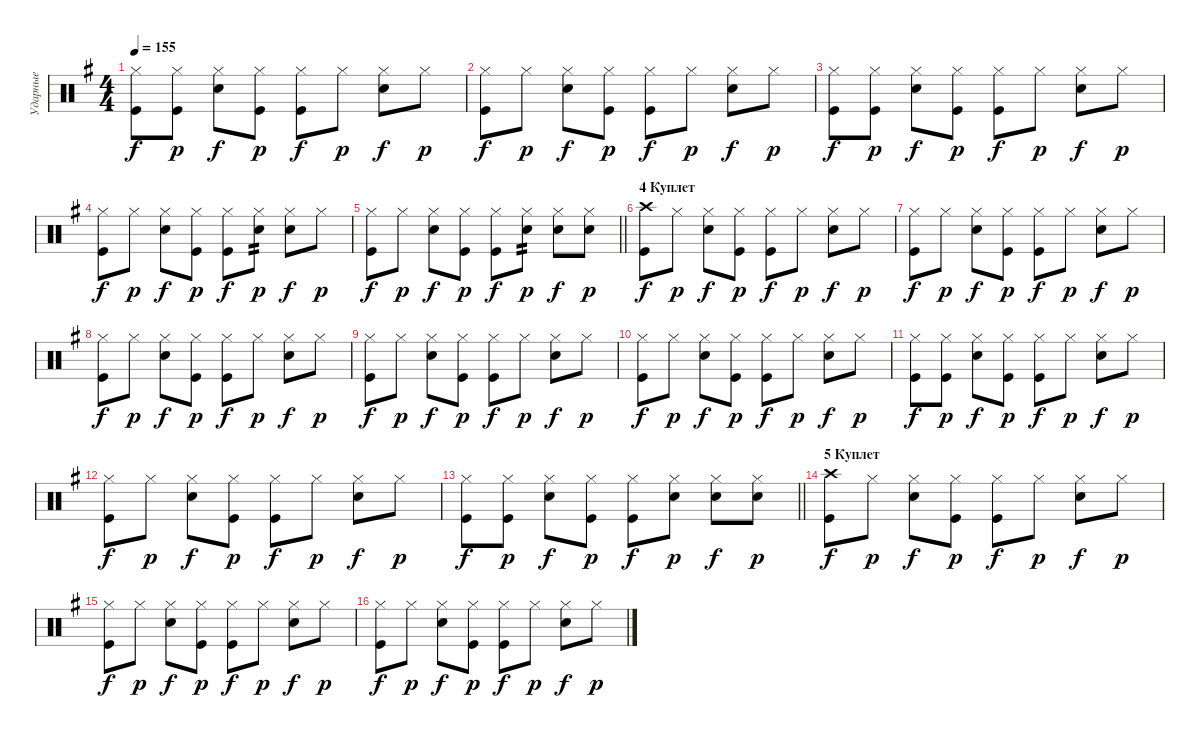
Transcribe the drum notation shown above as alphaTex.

\track ("Ударные" "Ударные") {instrument percussion}
\staff {score}
\articulation defaults
\ts (4 4)
\tempo 155
\clef neutral
\ks eminor
("Hi-Hat (closed)" "Kick (hit)").8{dy f} ("Hi-Hat (closed)" "Kick (hit)").8{dy p} ("Hi-Hat (closed)" "Snare (hit) 2").8{dy f} ("Hi-Hat (closed)" "Kick (hit)").8{dy p} ("Hi-Hat (closed)" "Kick (hit)").8{dy f} "Hi-Hat (closed)".8{dy p} ("Hi-Hat (closed)" "Snare (hit) 2").8{dy f} "Hi-Hat (closed)".8{dy p} |
("Hi-Hat (closed)" "Kick (hit)").8{dy f} "Hi-Hat (closed)".8{dy p} ("Hi-Hat (closed)" "Snare (hit) 2").8{dy f} ("Hi-Hat (closed)" "Kick (hit)").8{dy p} ("Hi-Hat (closed)" "Kick (hit)").8{dy f} "Hi-Hat (closed)".8{dy p} ("Hi-Hat (closed)" "Snare (hit) 2").8{dy f} "Hi-Hat (closed)".8{dy p} |
("Hi-Hat (closed)" "Kick (hit)").8{dy f} ("Hi-Hat (closed)" "Kick (hit)").8{dy p} ("Hi-Hat (closed)" "Snare (hit) 2").8{dy f} ("Hi-Hat (closed)" "Kick (hit)").8{dy p} ("Hi-Hat (closed)" "Kick (hit)").8{dy f} "Hi-Hat (closed)".8{dy p} ("Hi-Hat (closed)" "Snare (hit) 2").8{dy f} "Hi-Hat (closed)".8{dy p} |
("Hi-Hat (closed)" "Kick (hit)").8{dy f} "Hi-Hat (closed)".8{dy p} ("Hi-Hat (closed)" "Snare (hit) 2").8{dy f} ("Hi-Hat (closed)" "Kick (hit)").8{dy p} ("Hi-Hat (closed)" "Kick (hit)").8{dy f} ("Hi-Hat (closed)" "Snare (hit) 2").8{tp 2 dy p} ("Hi-Hat (closed)" "Snare (hit) 2").8{dy f} "Hi-Hat (closed)".8{dy p} |
\barLineRight lightlight
("Hi-Hat (closed)" "Kick (hit)").8{dy f} "Hi-Hat (closed)".8{dy p} ("Hi-Hat (closed)" "Snare (hit) 2").8{dy f} ("Hi-Hat (closed)" "Kick (hit)").8{dy p} ("Hi-Hat (closed)" "Kick (hit)").8{dy f} ("Hi-Hat (closed)" "Snare (hit) 2").8{tp 2 dy p} ("Hi-Hat (closed)" "Snare (hit) 2").8{dy f} ("Hi-Hat (closed)" "Snare (hit) 2").8{dy p} |
\section ("" "4 Куплет")
("Crash high (hit)" "Kick (hit)").8{dy f} "Hi-Hat (closed)".8{dy p} ("Hi-Hat (closed)" "Snare (hit) 2").8{dy f} ("Hi-Hat (closed)" "Kick (hit)").8{dy p} ("Hi-Hat (closed)" "Kick (hit)").8{dy f} "Hi-Hat (closed)".8{dy p} ("Hi-Hat (closed)" "Snare (hit) 2").8{dy f} "Hi-Hat (closed)".8{dy p} |
("Hi-Hat (closed)" "Kick (hit)").8{dy f} "Hi-Hat (closed)".8{dy p} ("Hi-Hat (closed)" "Snare (hit) 2").8{dy f} ("Hi-Hat (closed)" "Kick (hit)").8{dy p} ("Hi-Hat (closed)" "Kick (hit)").8{dy f} "Hi-Hat (closed)".8{dy p} ("Hi-Hat (closed)" "Snare (hit) 2").8{dy f} "Hi-Hat (closed)".8{dy p} |
("Hi-Hat (closed)" "Kick (hit)").8{dy f} "Hi-Hat (closed)".8{dy p} ("Hi-Hat (closed)" "Snare (hit) 2").8{dy f} ("Hi-Hat (closed)" "Kick (hit)").8{dy p} ("Hi-Hat (closed)" "Kick (hit)").8{dy f} "Hi-Hat (closed)".8{dy p} ("Hi-Hat (closed)" "Snare (hit) 2").8{dy f} "Hi-Hat (closed)".8{dy p} |
("Hi-Hat (closed)" "Kick (hit)").8{dy f} "Hi-Hat (closed)".8{dy p} ("Hi-Hat (closed)" "Snare (hit) 2").8{dy f} ("Hi-Hat (closed)" "Kick (hit)").8{dy p} ("Hi-Hat (closed)" "Kick (hit)").8{dy f} "Hi-Hat (closed)".8{dy p} ("Hi-Hat (closed)" "Snare (hit) 2").8{dy f} "Hi-Hat (closed)".8{dy p} |
("Hi-Hat (closed)" "Kick (hit)").8{dy f} "Hi-Hat (closed)".8{dy p} ("Hi-Hat (closed)" "Snare (hit) 2").8{dy f} ("Hi-Hat (closed)" "Kick (hit)").8{dy p} ("Hi-Hat (closed)" "Kick (hit)").8{dy f} "Hi-Hat (closed)".8{dy p} ("Hi-Hat (closed)" "Snare (hit) 2").8{dy f} "Hi-Hat (closed)".8{dy p} |
("Hi-Hat (closed)" "Kick (hit)").8{dy f} ("Hi-Hat (closed)" "Kick (hit)").8{dy p} ("Hi-Hat (closed)" "Snare (hit) 2").8{dy f} ("Hi-Hat (closed)" "Kick (hit)").8{dy p} ("Hi-Hat (closed)" "Kick (hit)").8{dy f} "Hi-Hat (closed)".8{dy p} ("Hi-Hat (closed)" "Snare (hit) 2").8{dy f} "Hi-Hat (closed)".8{dy p} |
("Hi-Hat (closed)" "Kick (hit)").8{dy f} "Hi-Hat (closed)".8{dy p} ("Hi-Hat (closed)" "Snare (hit) 2").8{dy f} ("Hi-Hat (closed)" "Kick (hit)").8{dy p} ("Hi-Hat (closed)" "Kick (hit)").8{dy f} "Hi-Hat (closed)".8{dy p} ("Hi-Hat (closed)" "Snare (hit) 2").8{dy f} "Hi-Hat (closed)".8{dy p} |
\barLineRight lightlight
("Hi-Hat (closed)" "Kick (hit)").8{dy f} ("Hi-Hat (closed)" "Kick (hit)").8{dy p} ("Hi-Hat (closed)" "Snare (hit) 2").8{dy f} ("Hi-Hat (closed)" "Kick (hit)").8{dy p} ("Hi-Hat (closed)" "Kick (hit)").8{dy f} ("Hi-Hat (closed)" "Snare (hit) 2").8{dy p} ("Hi-Hat (closed)" "Snare (hit) 2").8{dy f} ("Hi-Hat (closed)" "Snare (hit) 2").8{dy p} |
\section ("" "5 Куплет")
("Crash high (hit)" "Kick (hit)").8{dy f} "Hi-Hat (closed)".8{dy p} ("Hi-Hat (closed)" "Snare (hit) 2").8{dy f} ("Hi-Hat (closed)" "Kick (hit)").8{dy p} ("Hi-Hat (closed)" "Kick (hit)").8{dy f} "Hi-Hat (closed)".8{dy p} ("Hi-Hat (closed)" "Snare (hit) 2").8{dy f} "Hi-Hat (closed)".8{dy p} |
("Hi-Hat (closed)" "Kick (hit)").8{dy f} "Hi-Hat (closed)".8{dy p} ("Hi-Hat (closed)" "Snare (hit) 2").8{dy f} ("Hi-Hat (closed)" "Kick (hit)").8{dy p} ("Hi-Hat (closed)" "Kick (hit)").8{dy f} "Hi-Hat (closed)".8{dy p} ("Hi-Hat (closed)" "Snare (hit) 2").8{dy f} "Hi-Hat (closed)".8{dy p} |
("Hi-Hat (closed)" "Kick (hit)").8{dy f} "Hi-Hat (closed)".8{dy p} ("Hi-Hat (closed)" "Snare (hit) 2").8{dy f} ("Hi-Hat (closed)" "Kick (hit)").8{dy p} ("Hi-Hat (closed)" "Kick (hit)").8{dy f} "Hi-Hat (closed)".8{dy p} ("Hi-Hat (closed)" "Snare (hit) 2").8{dy f} "Hi-Hat (closed)".8{dy p}
